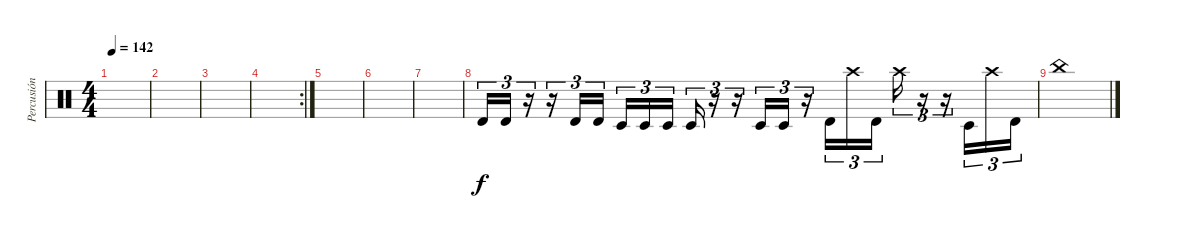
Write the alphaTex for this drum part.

\track ("Percusión" "Percusión") {instrument percussion}
\staff {score}
\articulation defaults
\ts (4 4)
\tempo 142
\clef neutral
\ks c
|
|
|
\rc 2
|
|
|
|
"Timbale high (hit)".16{tu (3 2)} "Timbale high (hit)".16{tu (3 2)} r.16{tu (3 2)} r.16{tu (3 2)} "Timbale high (hit)".16{tu (3 2)} "Timbale high (hit)".16{tu (3 2)} "Timbale low (hit)".16{tu (3 2)} "Timbale low (hit)".16{tu (3 2)} "Timbale low (hit)".16{tu (3 2)} "Timbale low (hit)".16{tu (3 2)} r.16{tu (3 2)} r.16{tu (3 2)} "Timbale low (hit)".16{tu (3 2)} "Timbale low (hit)".16{tu (3 2)} r.16{tu (3 2)} "Timbale high (hit)".16{tu (3 2)} "Crash high (hit)".16{tu (3 2)} "Timbale high (hit)".16{tu (3 2)} "Crash high (hit)".16{tu (3 2)} r.16{tu (3 2)} r.16{tu (3 2)} "Timbale low (hit)".16{tu (3 2)} "Crash high (hit)".16{tu (3 2)} "Timbale high (hit)".16{tu (3 2)} |
"China (hit)".1
